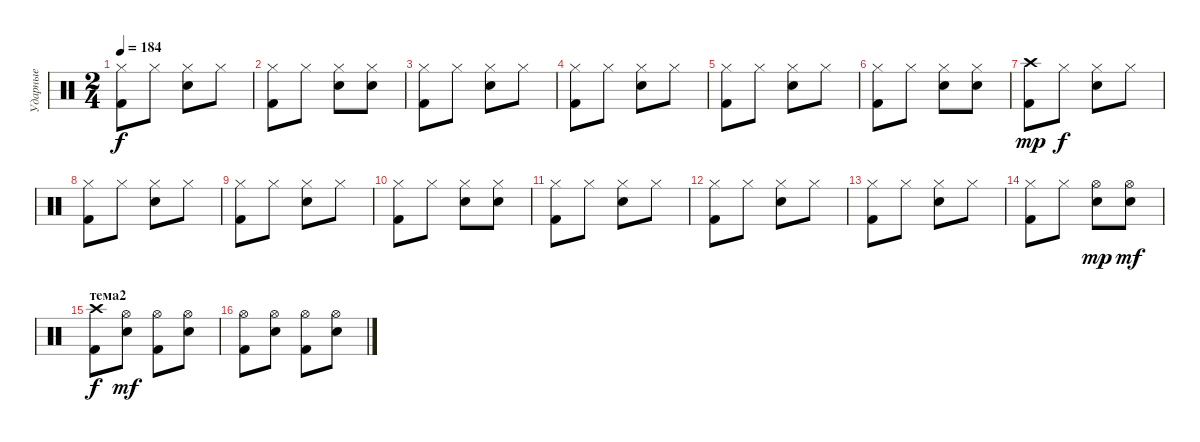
\track ("Ударные" "Ударные") {instrument percussion}
\staff {score}
\articulation defaults
\ts (2 4)
\tempo 184
\clef neutral
\ks c
("Hi-Hat (closed)" "Kick (hit) 2").8{dy f} "Hi-Hat (closed)".8 ("Hi-Hat (closed)" "Snare (hit) 2").8 "Hi-Hat (closed)".8 |
("Hi-Hat (closed)" "Kick (hit) 2").8 "Hi-Hat (closed)".8 ("Hi-Hat (closed)" "Snare (hit) 2").8 ("Hi-Hat (closed)" "Snare (hit) 2").8 |
("Hi-Hat (closed)" "Kick (hit) 2").8 "Hi-Hat (closed)".8 ("Hi-Hat (closed)" "Snare (hit) 2").8 "Hi-Hat (closed)".8 |
("Hi-Hat (closed)" "Kick (hit) 2").8 "Hi-Hat (closed)".8 ("Hi-Hat (closed)" "Snare (hit) 2").8 "Hi-Hat (closed)".8 |
("Hi-Hat (closed)" "Kick (hit) 2").8 "Hi-Hat (closed)".8 ("Hi-Hat (closed)" "Snare (hit) 2").8 "Hi-Hat (closed)".8 |
("Hi-Hat (closed)" "Kick (hit) 2").8 "Hi-Hat (closed)".8 ("Hi-Hat (closed)" "Snare (hit) 2").8 ("Hi-Hat (closed)" "Snare (hit) 2").8 |
("Crash high (hit)" "Kick (hit) 2").8{dy mp} "Hi-Hat (closed)".8{dy f} ("Hi-Hat (closed)" "Snare (hit) 2").8 "Hi-Hat (closed)".8 |
("Hi-Hat (closed)" "Kick (hit) 2").8 "Hi-Hat (closed)".8 ("Hi-Hat (closed)" "Snare (hit) 2").8 "Hi-Hat (closed)".8 |
("Hi-Hat (closed)" "Kick (hit) 2").8 "Hi-Hat (closed)".8 ("Hi-Hat (closed)" "Snare (hit) 2").8 "Hi-Hat (closed)".8 |
("Hi-Hat (closed)" "Kick (hit) 2").8 "Hi-Hat (closed)".8 ("Hi-Hat (closed)" "Snare (hit) 2").8 ("Hi-Hat (closed)" "Snare (hit) 2").8 |
("Hi-Hat (closed)" "Kick (hit) 2").8 "Hi-Hat (closed)".8 ("Hi-Hat (closed)" "Snare (hit) 2").8 "Hi-Hat (closed)".8 |
("Hi-Hat (closed)" "Kick (hit) 2").8 "Hi-Hat (closed)".8 ("Hi-Hat (closed)" "Snare (hit) 2").8 "Hi-Hat (closed)".8 |
("Hi-Hat (closed)" "Kick (hit) 2").8 "Hi-Hat (closed)".8 ("Hi-Hat (closed)" "Snare (hit) 2").8 "Hi-Hat (closed)".8 |
("Hi-Hat (closed)" "Kick (hit) 2").8 "Hi-Hat (closed)".8 ("Hi-Hat (open)" "Snare (hit) 2").8{dy mp} ("Hi-Hat (open)" "Snare (hit) 2").8{dy mf} |
\section ("" "тема2")
("Kick (hit) 2" "Crash high (hit)").8{dy f} ("Snare (hit) 2" "Hi-Hat (open)").8{dy mf} ("Kick (hit) 2" "Hi-Hat (open)").8 ("Snare (hit) 2" "Hi-Hat (open)").8 |
("Kick (hit) 2" "Hi-Hat (open)").8 ("Snare (hit) 2" "Hi-Hat (open)").8 ("Kick (hit) 2" "Hi-Hat (open)").8 ("Snare (hit) 2" "Hi-Hat (open)").8
